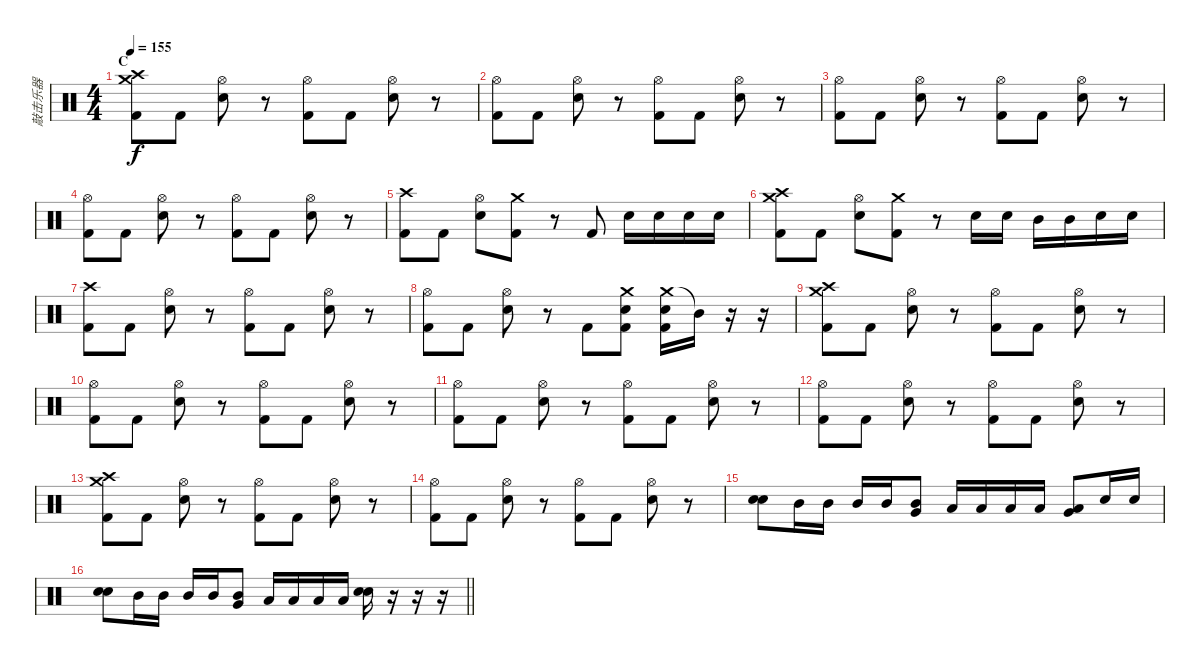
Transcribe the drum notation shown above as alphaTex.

\track ("敲击乐器" "敲击乐器") {instrument percussion}
\staff {score}
\articulation defaults
\ts (4 4)
\section ("" "C")
\tempo 155
\clef neutral
\ks c
("Crash high (hit)" "Crash medium (hit)" "Kick (hit) 2").8{dy f} "Kick (hit) 2".8 ("Hi-Hat (open)" "Snare (hit) 2").8 r.8 ("Hi-Hat (open)" "Kick (hit) 2").8 "Kick (hit) 2".8 ("Hi-Hat (open)" "Snare (hit) 2").8 r.8 |
("Hi-Hat (open)" "Kick (hit) 2").8 "Kick (hit) 2".8 ("Hi-Hat (open)" "Snare (hit) 2").8 r.8 ("Hi-Hat (open)" "Kick (hit) 2").8 "Kick (hit) 2".8 ("Hi-Hat (open)" "Snare (hit) 2").8 r.8 |
("Hi-Hat (open)" "Kick (hit) 2").8 "Kick (hit) 2".8 ("Hi-Hat (open)" "Snare (hit) 2").8 r.8 ("Hi-Hat (open)" "Kick (hit) 2").8 "Kick (hit) 2".8 ("Hi-Hat (open)" "Snare (hit) 2").8 r.8 |
("Hi-Hat (open)" "Kick (hit) 2").8 "Kick (hit) 2".8 ("Hi-Hat (open)" "Snare (hit) 2").8 r.8 ("Hi-Hat (open)" "Kick (hit) 2").8 "Kick (hit) 2".8 ("Hi-Hat (open)" "Snare (hit) 2").8 r.8 |
("Crash high (hit)" "Kick (hit) 2").8 "Kick (hit) 2".8 ("Hi-Hat (open)" "Snare (hit) 2").8 ("Crash medium (hit)" "Kick (hit) 2").8 r.8 "Kick (hit) 2".8 "Snare (hit) 2".16 "Snare (hit) 2".16 "Snare (hit) 2".16 "Snare (hit) 2".16 |
("Crash high (hit)" "Crash medium (hit)" "Kick (hit) 2").8 "Kick (hit) 2".8 ("Hi-Hat (open)" "Snare (hit) 2").8 ("Crash medium (hit)" "Kick (hit) 2").8 r.8 "Snare (hit) 2".16 "Snare (hit) 2".16 "Mid Tom (hit)".16 "Mid Tom (hit)".16 "Snare (hit) 2".16 "Snare (hit) 2".16 |
("Crash high (hit)" "Kick (hit) 2").8 "Kick (hit) 2".8 ("Hi-Hat (open)" "Snare (hit) 2").8 r.8 ("Hi-Hat (open)" "Kick (hit) 2").8 "Kick (hit) 2".8 ("Hi-Hat (open)" "Snare (hit) 2").8 r.8 |
("Hi-Hat (open)" "Kick (hit) 2").8 "Kick (hit) 2".8 ("Hi-Hat (open)" "Snare (hit) 2").8 r.8 "Kick (hit) 2".8 ("Crash medium (hit)" "Snare (hit) 2" "Kick (hit) 2").8 ("Crash medium (hit)" "Snare (hit) 2" "Kick (hit) 2").16 "Mid Tom (hit)"{t}.16 r.16 r.16 |
("Crash high (hit)" "Crash medium (hit)" "Kick (hit) 2").8 "Kick (hit) 2".8 ("Hi-Hat (open)" "Snare (hit) 2").8 r.8 ("Hi-Hat (open)" "Kick (hit) 2").8 "Kick (hit) 2".8 ("Hi-Hat (open)" "Snare (hit) 2").8 r.8 |
("Hi-Hat (open)" "Kick (hit) 2").8 "Kick (hit) 2".8 ("Hi-Hat (open)" "Snare (hit) 2").8 r.8 ("Hi-Hat (open)" "Kick (hit) 2").8 "Kick (hit) 2".8 ("Hi-Hat (open)" "Snare (hit) 2").8 r.8 |
("Hi-Hat (open)" "Kick (hit) 2").8 "Kick (hit) 2".8 ("Hi-Hat (open)" "Snare (hit) 2").8 r.8 ("Hi-Hat (open)" "Kick (hit) 2").8 "Kick (hit) 2".8 ("Hi-Hat (open)" "Snare (hit) 2").8 r.8 |
("Hi-Hat (open)" "Kick (hit) 2").8 "Kick (hit) 2".8 ("Hi-Hat (open)" "Snare (hit) 2").8 r.8 ("Hi-Hat (open)" "Kick (hit) 2").8 "Kick (hit) 2".8 ("Hi-Hat (open)" "Snare (hit) 2").8 r.8 |
("Crash high (hit)" "Crash medium (hit)" "Kick (hit) 2").8 "Kick (hit) 2".8 ("Hi-Hat (open)" "Snare (hit) 2").8 r.8 ("Hi-Hat (open)" "Kick (hit) 2").8 "Kick (hit) 2".8 ("Hi-Hat (open)" "Snare (hit) 2").8 r.8 |
("Hi-Hat (open)" "Kick (hit) 2").8 "Kick (hit) 2".8 ("Hi-Hat (open)" "Snare (hit) 2").8 r.8 ("Hi-Hat (open)" "Kick (hit) 2").8 "Kick (hit) 2".8 ("Hi-Hat (open)" "Snare (hit) 2").8 r.8 |
("Snare (hit) 2" "Snare (hit) 2").8{bd 60} "Mid Tom (hit)".16 "Mid Tom (hit)".16 "Mid Tom (hit)".16 "Mid Tom (hit)".16 ("Very Low Tom (hit)" "Mid Tom (hit)").8{bd 60} "Low Tom (hit)".16 "Low Tom (hit)".16 "Low Tom (hit)".16 "Low Tom (hit)".16 ("Low Tom (hit)" "Very Low Tom (hit)").8{bd 60} "Snare (hit) 2".16 "Snare (hit) 2".16 |
\barLineRight lightlight
("Snare (hit) 2" "Snare (hit) 2").8{bd 60} "Mid Tom (hit)".16 "Mid Tom (hit)".16 "Mid Tom (hit)".16 "Mid Tom (hit)".16 ("Very Low Tom (hit)" "Mid Tom (hit)").8{bd 60} "Low Tom (hit)".16 "Low Tom (hit)".16 "Low Tom (hit)".16 "Low Tom (hit)".16 ("Snare (hit) 2" "Snare (hit) 2").16{bd 60} r.16 r.16 r.16
